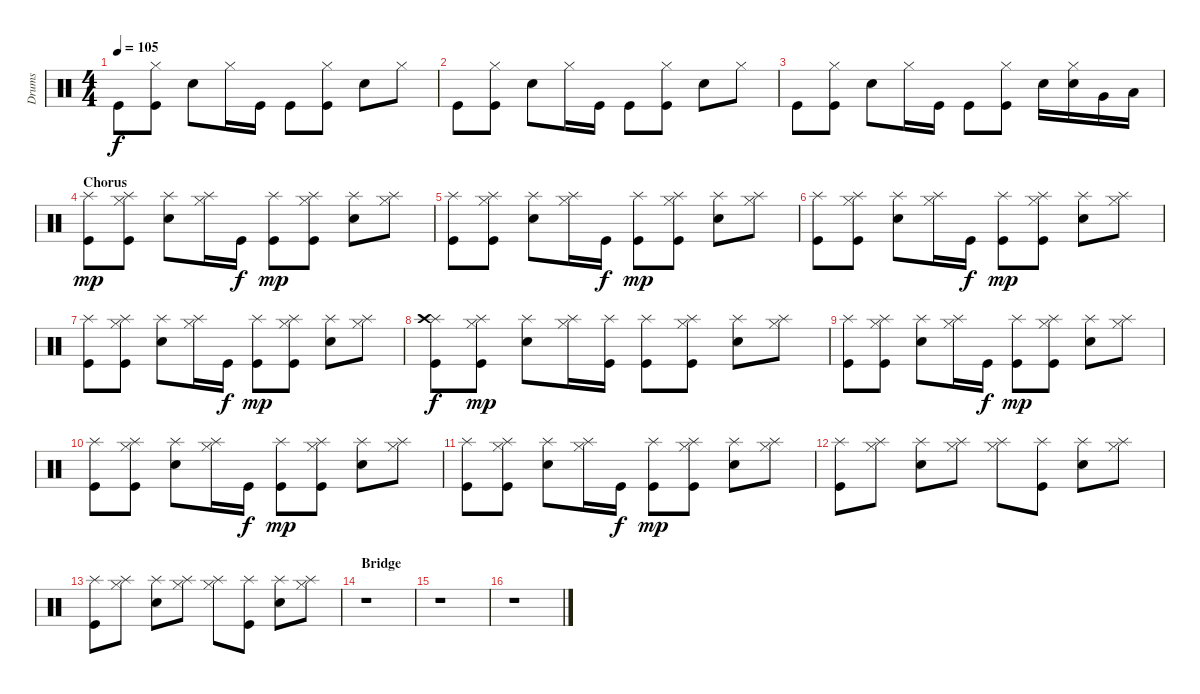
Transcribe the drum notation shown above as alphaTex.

\track ("Drums" "Drums") {instrument percussion}
\staff {score}
\articulation defaults
\ts (4 4)
\tempo 105
\clef neutral
\ks c "Kick (hit)".8{dy f}
("Kick (hit)" "Hi-Hat (closed)").8 "Electric Snare (hit)".8 "Hi-Hat (closed)".16 "Kick (hit)".16 "Kick (hit)".8 ("Kick (hit)" "Hi-Hat (closed)").8 "Electric Snare (hit)".8 "Hi-Hat (closed)".8 |
"Kick (hit)".8 ("Kick (hit)" "Hi-Hat (closed)").8 "Electric Snare (hit)".8 "Hi-Hat (closed)".16 "Kick (hit)".16 "Kick (hit)".8 ("Kick (hit)" "Hi-Hat (closed)").8 "Electric Snare (hit)".8 "Hi-Hat (closed)".8 |
"Kick (hit)".8 ("Kick (hit)" "Hi-Hat (closed)").8 "Electric Snare (hit)".8 "Hi-Hat (closed)".16 "Kick (hit)".16 "Kick (hit)".8 ("Kick (hit)" "Hi-Hat (closed)").8 "Electric Snare (hit)".16 ("Electric Snare (hit)" "Hi-Hat (closed)").16 "Very Low Tom (hit)".16 "Low Floor Tom (hit)".16 |
\section ("" "Chorus")
("Kick (hit)" "Splash (hit)").8{dy mp} ("Kick (hit)" "Hi-Hat (closed)" "Splash (hit)").8 ("Electric Snare (hit)" "Splash (hit)").8 ("Hi-Hat (closed)" "Splash (hit)").16 "Kick (hit)".16{dy f} ("Kick (hit)" "Splash (hit)").8{dy mp} ("Kick (hit)" "Hi-Hat (closed)" "Splash (hit)").8 ("Electric Snare (hit)" "Splash (hit)").8 ("Hi-Hat (closed)" "Splash (hit)").8 |
("Kick (hit)" "Splash (hit)").8 ("Kick (hit)" "Hi-Hat (closed)" "Splash (hit)").8 ("Electric Snare (hit)" "Splash (hit)").8 ("Hi-Hat (closed)" "Splash (hit)").16 "Kick (hit)".16{dy f} ("Kick (hit)" "Splash (hit)").8{dy mp} ("Kick (hit)" "Hi-Hat (closed)" "Splash (hit)").8 ("Electric Snare (hit)" "Splash (hit)").8 ("Hi-Hat (closed)" "Splash (hit)").8 |
("Kick (hit)" "Splash (hit)").8 ("Kick (hit)" "Hi-Hat (closed)" "Splash (hit)").8 ("Electric Snare (hit)" "Splash (hit)").8 ("Hi-Hat (closed)" "Splash (hit)").16 "Kick (hit)".16{dy f} ("Kick (hit)" "Splash (hit)").8{dy mp} ("Kick (hit)" "Hi-Hat (closed)" "Splash (hit)").8 ("Electric Snare (hit)" "Splash (hit)").8 ("Hi-Hat (closed)" "Splash (hit)").8 |
("Kick (hit)" "Splash (hit)").8 ("Kick (hit)" "Hi-Hat (closed)" "Splash (hit)").8 ("Electric Snare (hit)" "Splash (hit)").8 ("Hi-Hat (closed)" "Splash (hit)").16 "Kick (hit)".16{dy f} ("Kick (hit)" "Splash (hit)").8{dy mp} ("Kick (hit)" "Hi-Hat (closed)" "Splash (hit)").8 ("Electric Snare (hit)" "Splash (hit)").8 ("Hi-Hat (closed)" "Splash (hit)").8 |
("Kick (hit)" "Splash (hit)" "Crash high (hit)").8{dy f} ("Kick (hit)" "Hi-Hat (closed)" "Splash (hit)").8{dy mp} ("Electric Snare (hit)" "Splash (hit)").8 ("Hi-Hat (closed)" "Splash (hit)").16 ("Kick (hit)" "Splash (hit)").16 ("Kick (hit)" "Splash (hit)").8 ("Kick (hit)" "Hi-Hat (closed)" "Splash (hit)").8 ("Electric Snare (hit)" "Splash (hit)").8 ("Hi-Hat (closed)" "Splash (hit)").8 |
("Kick (hit)" "Splash (hit)").8 ("Kick (hit)" "Hi-Hat (closed)" "Splash (hit)").8 ("Electric Snare (hit)" "Splash (hit)").8 ("Hi-Hat (closed)" "Splash (hit)").16 "Kick (hit)".16{dy f} ("Kick (hit)" "Splash (hit)").8{dy mp} ("Kick (hit)" "Hi-Hat (closed)" "Splash (hit)").8 ("Electric Snare (hit)" "Splash (hit)").8 ("Hi-Hat (closed)" "Splash (hit)").8 |
("Kick (hit)" "Splash (hit)").8 ("Kick (hit)" "Hi-Hat (closed)" "Splash (hit)").8 ("Electric Snare (hit)" "Splash (hit)").8 ("Hi-Hat (closed)" "Splash (hit)").16 "Kick (hit)".16{dy f} ("Kick (hit)" "Splash (hit)").8{dy mp} ("Kick (hit)" "Hi-Hat (closed)" "Splash (hit)").8 ("Electric Snare (hit)" "Splash (hit)").8 ("Hi-Hat (closed)" "Splash (hit)").8 |
("Kick (hit)" "Splash (hit)").8 ("Kick (hit)" "Hi-Hat (closed)" "Splash (hit)").8 ("Electric Snare (hit)" "Splash (hit)").8 ("Hi-Hat (closed)" "Splash (hit)").16 "Kick (hit)".16{dy f} ("Kick (hit)" "Splash (hit)").8{dy mp} ("Kick (hit)" "Hi-Hat (closed)" "Splash (hit)").8 ("Electric Snare (hit)" "Splash (hit)").8 ("Hi-Hat (closed)" "Splash (hit)").8 |
("Kick (hit)" "Splash (hit)").8 ("Hi-Hat (closed)" "Splash (hit)").8 ("Electric Snare (hit)" "Splash (hit)").8 ("Hi-Hat (closed)" "Splash (hit)").8 ("Hi-Hat (closed)" "Splash (hit)").8 ("Kick (hit)" "Splash (hit)").8 ("Electric Snare (hit)" "Splash (hit)").8 ("Hi-Hat (closed)" "Splash (hit)").8 |
("Kick (hit)" "Splash (hit)").8 ("Hi-Hat (closed)" "Splash (hit)").8 ("Electric Snare (hit)" "Splash (hit)").8 ("Hi-Hat (closed)" "Splash (hit)").8 ("Hi-Hat (closed)" "Splash (hit)").8 ("Kick (hit)" "Splash (hit)").8 ("Electric Snare (hit)" "Splash (hit)").8 ("Hi-Hat (closed)" "Splash (hit)").8 |
\section ("" "Bridge")
r.1 |
r.1 |
r.1
